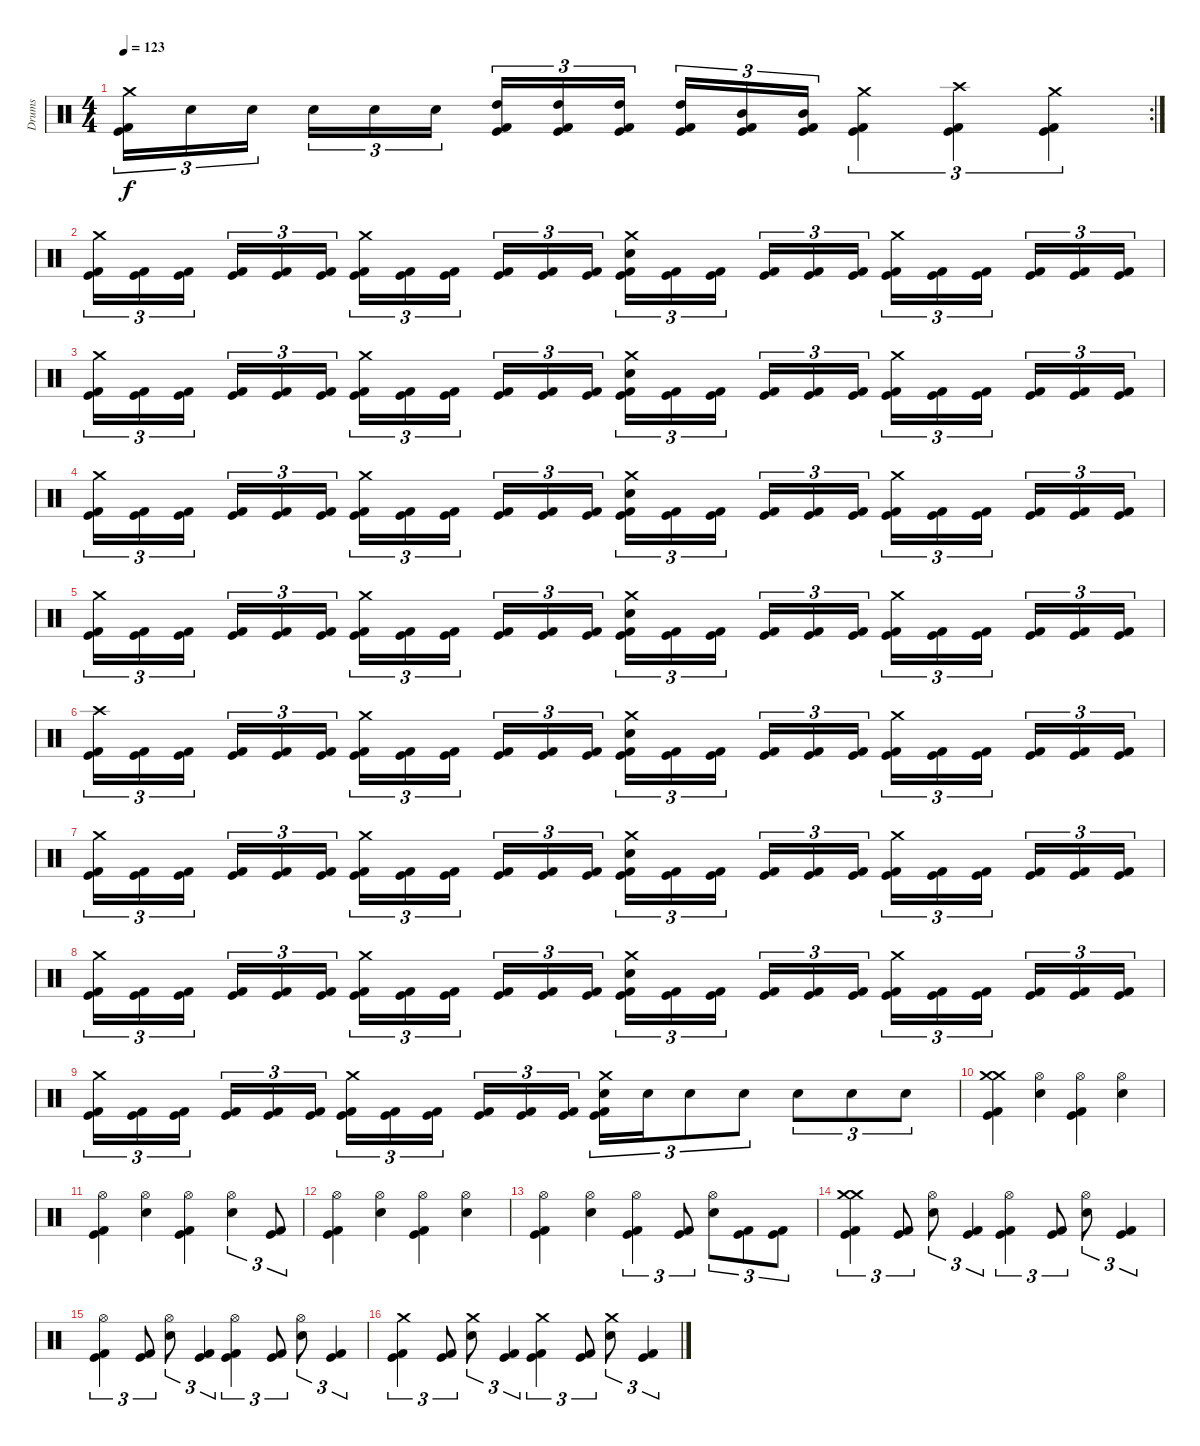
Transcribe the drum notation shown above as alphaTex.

\track ("Drums" "Drums") {instrument percussion}
\staff {score}
\articulation defaults
\rc 2
\ts (4 4)
\tempo 123
\clef neutral
\ks c
("Crash medium (hit)" "Kick (hit)" "Kick (hit) 2").16{tu (3 2) dy f} "Electric Snare (hit)".16{tu (3 2)} "Electric Snare (hit)".16{tu (3 2)} "Electric Snare (hit)".16{tu (3 2)} "Electric Snare (hit)".16{tu (3 2)} "Electric Snare (hit)".16{tu (3 2)} ("High Tom (hit)" "Kick (hit)" "Kick (hit) 2").16{tu (3 2)} ("High Tom (hit)" "Kick (hit)" "Kick (hit) 2").16{tu (3 2)} ("High Tom (hit)" "Kick (hit)" "Kick (hit) 2").16{tu (3 2)} ("High Tom (hit)" "Kick (hit)" "Kick (hit) 2").16{tu (3 2)} ("Mid Tom (hit)" "Kick (hit)" "Kick (hit) 2").16{tu (3 2)} ("Mid Tom (hit)" "Kick (hit)" "Kick (hit) 2").16{tu (3 2)} ("Crash medium (hit)" "Kick (hit)" "Kick (hit) 2").4{tu (3 2)} ("Crash high (hit)" "Kick (hit)" "Kick (hit) 2").4{tu (3 2)} ("Crash medium (hit)" "Kick (hit)" "Kick (hit) 2").4{tu (3 2)} |
("Crash medium (hit)" "Kick (hit)" "Kick (hit) 2").16{tu (3 2)} ("Kick (hit)" "Kick (hit) 2").16{tu (3 2)} ("Kick (hit)" "Kick (hit) 2").16{tu (3 2)} ("Kick (hit)" "Kick (hit) 2").16{tu (3 2)} ("Kick (hit)" "Kick (hit) 2").16{tu (3 2)} ("Kick (hit)" "Kick (hit) 2").16{tu (3 2)} ("Crash medium (hit)" "Kick (hit)" "Kick (hit) 2").16{tu (3 2)} ("Kick (hit)" "Kick (hit) 2").16{tu (3 2)} ("Kick (hit)" "Kick (hit) 2").16{tu (3 2)} ("Kick (hit)" "Kick (hit) 2").16{tu (3 2)} ("Kick (hit)" "Kick (hit) 2").16{tu (3 2)} ("Kick (hit)" "Kick (hit) 2").16{tu (3 2)} ("Crash medium (hit)" "Electric Snare (hit)" "Kick (hit)" "Kick (hit) 2").16{tu (3 2)} ("Kick (hit)" "Kick (hit) 2").16{tu (3 2)} ("Kick (hit)" "Kick (hit) 2").16{tu (3 2)} ("Kick (hit)" "Kick (hit) 2").16{tu (3 2)} ("Kick (hit)" "Kick (hit) 2").16{tu (3 2)} ("Kick (hit)" "Kick (hit) 2").16{tu (3 2)} ("Crash medium (hit)" "Kick (hit)" "Kick (hit) 2").16{tu (3 2)} ("Kick (hit)" "Kick (hit) 2").16{tu (3 2)} ("Kick (hit)" "Kick (hit) 2").16{tu (3 2)} ("Kick (hit)" "Kick (hit) 2").16{tu (3 2)} ("Kick (hit)" "Kick (hit) 2").16{tu (3 2)} ("Kick (hit)" "Kick (hit) 2").16{tu (3 2)} |
("Crash medium (hit)" "Kick (hit)" "Kick (hit) 2").16{tu (3 2)} ("Kick (hit)" "Kick (hit) 2").16{tu (3 2)} ("Kick (hit)" "Kick (hit) 2").16{tu (3 2)} ("Kick (hit)" "Kick (hit) 2").16{tu (3 2)} ("Kick (hit)" "Kick (hit) 2").16{tu (3 2)} ("Kick (hit)" "Kick (hit) 2").16{tu (3 2)} ("Crash medium (hit)" "Kick (hit)" "Kick (hit) 2").16{tu (3 2)} ("Kick (hit)" "Kick (hit) 2").16{tu (3 2)} ("Kick (hit)" "Kick (hit) 2").16{tu (3 2)} ("Kick (hit)" "Kick (hit) 2").16{tu (3 2)} ("Kick (hit)" "Kick (hit) 2").16{tu (3 2)} ("Kick (hit)" "Kick (hit) 2").16{tu (3 2)} ("Crash medium (hit)" "Electric Snare (hit)" "Kick (hit)" "Kick (hit) 2").16{tu (3 2)} ("Kick (hit)" "Kick (hit) 2").16{tu (3 2)} ("Kick (hit)" "Kick (hit) 2").16{tu (3 2)} ("Kick (hit)" "Kick (hit) 2").16{tu (3 2)} ("Kick (hit)" "Kick (hit) 2").16{tu (3 2)} ("Kick (hit)" "Kick (hit) 2").16{tu (3 2)} ("Crash medium (hit)" "Kick (hit)" "Kick (hit) 2").16{tu (3 2)} ("Kick (hit)" "Kick (hit) 2").16{tu (3 2)} ("Kick (hit)" "Kick (hit) 2").16{tu (3 2)} ("Kick (hit)" "Kick (hit) 2").16{tu (3 2)} ("Kick (hit)" "Kick (hit) 2").16{tu (3 2)} ("Kick (hit)" "Kick (hit) 2").16{tu (3 2)} |
("Crash medium (hit)" "Kick (hit)" "Kick (hit) 2").16{tu (3 2)} ("Kick (hit)" "Kick (hit) 2").16{tu (3 2)} ("Kick (hit)" "Kick (hit) 2").16{tu (3 2)} ("Kick (hit)" "Kick (hit) 2").16{tu (3 2)} ("Kick (hit)" "Kick (hit) 2").16{tu (3 2)} ("Kick (hit)" "Kick (hit) 2").16{tu (3 2)} ("Crash medium (hit)" "Kick (hit)" "Kick (hit) 2").16{tu (3 2)} ("Kick (hit)" "Kick (hit) 2").16{tu (3 2)} ("Kick (hit)" "Kick (hit) 2").16{tu (3 2)} ("Kick (hit)" "Kick (hit) 2").16{tu (3 2)} ("Kick (hit)" "Kick (hit) 2").16{tu (3 2)} ("Kick (hit)" "Kick (hit) 2").16{tu (3 2)} ("Crash medium (hit)" "Electric Snare (hit)" "Kick (hit)" "Kick (hit) 2").16{tu (3 2)} ("Kick (hit)" "Kick (hit) 2").16{tu (3 2)} ("Kick (hit)" "Kick (hit) 2").16{tu (3 2)} ("Kick (hit)" "Kick (hit) 2").16{tu (3 2)} ("Kick (hit)" "Kick (hit) 2").16{tu (3 2)} ("Kick (hit)" "Kick (hit) 2").16{tu (3 2)} ("Crash medium (hit)" "Kick (hit)" "Kick (hit) 2").16{tu (3 2)} ("Kick (hit)" "Kick (hit) 2").16{tu (3 2)} ("Kick (hit)" "Kick (hit) 2").16{tu (3 2)} ("Kick (hit)" "Kick (hit) 2").16{tu (3 2)} ("Kick (hit)" "Kick (hit) 2").16{tu (3 2)} ("Kick (hit)" "Kick (hit) 2").16{tu (3 2)} |
("Crash medium (hit)" "Kick (hit)" "Kick (hit) 2").16{tu (3 2)} ("Kick (hit)" "Kick (hit) 2").16{tu (3 2)} ("Kick (hit)" "Kick (hit) 2").16{tu (3 2)} ("Kick (hit)" "Kick (hit) 2").16{tu (3 2)} ("Kick (hit)" "Kick (hit) 2").16{tu (3 2)} ("Kick (hit)" "Kick (hit) 2").16{tu (3 2)} ("Crash medium (hit)" "Kick (hit)" "Kick (hit) 2").16{tu (3 2)} ("Kick (hit)" "Kick (hit) 2").16{tu (3 2)} ("Kick (hit)" "Kick (hit) 2").16{tu (3 2)} ("Kick (hit)" "Kick (hit) 2").16{tu (3 2)} ("Kick (hit)" "Kick (hit) 2").16{tu (3 2)} ("Kick (hit)" "Kick (hit) 2").16{tu (3 2)} ("Crash medium (hit)" "Electric Snare (hit)" "Kick (hit)" "Kick (hit) 2").16{tu (3 2)} ("Kick (hit)" "Kick (hit) 2").16{tu (3 2)} ("Kick (hit)" "Kick (hit) 2").16{tu (3 2)} ("Kick (hit)" "Kick (hit) 2").16{tu (3 2)} ("Kick (hit)" "Kick (hit) 2").16{tu (3 2)} ("Kick (hit)" "Kick (hit) 2").16{tu (3 2)} ("Crash medium (hit)" "Kick (hit)" "Kick (hit) 2").16{tu (3 2)} ("Kick (hit)" "Kick (hit) 2").16{tu (3 2)} ("Kick (hit)" "Kick (hit) 2").16{tu (3 2)} ("Kick (hit)" "Kick (hit) 2").16{tu (3 2)} ("Kick (hit)" "Kick (hit) 2").16{tu (3 2)} ("Kick (hit)" "Kick (hit) 2").16{tu (3 2)} |
("Crash high (hit)" "Kick (hit)" "Kick (hit) 2").16{tu (3 2)} ("Kick (hit)" "Kick (hit) 2").16{tu (3 2)} ("Kick (hit)" "Kick (hit) 2").16{tu (3 2)} ("Kick (hit)" "Kick (hit) 2").16{tu (3 2)} ("Kick (hit)" "Kick (hit) 2").16{tu (3 2)} ("Kick (hit)" "Kick (hit) 2").16{tu (3 2)} ("Crash medium (hit)" "Kick (hit)" "Kick (hit) 2").16{tu (3 2)} ("Kick (hit)" "Kick (hit) 2").16{tu (3 2)} ("Kick (hit)" "Kick (hit) 2").16{tu (3 2)} ("Kick (hit)" "Kick (hit) 2").16{tu (3 2)} ("Kick (hit)" "Kick (hit) 2").16{tu (3 2)} ("Kick (hit)" "Kick (hit) 2").16{tu (3 2)} ("Crash medium (hit)" "Electric Snare (hit)" "Kick (hit)" "Kick (hit) 2").16{tu (3 2)} ("Kick (hit)" "Kick (hit) 2").16{tu (3 2)} ("Kick (hit)" "Kick (hit) 2").16{tu (3 2)} ("Kick (hit)" "Kick (hit) 2").16{tu (3 2)} ("Kick (hit)" "Kick (hit) 2").16{tu (3 2)} ("Kick (hit)" "Kick (hit) 2").16{tu (3 2)} ("Crash medium (hit)" "Kick (hit)" "Kick (hit) 2").16{tu (3 2)} ("Kick (hit)" "Kick (hit) 2").16{tu (3 2)} ("Kick (hit)" "Kick (hit) 2").16{tu (3 2)} ("Kick (hit)" "Kick (hit) 2").16{tu (3 2)} ("Kick (hit)" "Kick (hit) 2").16{tu (3 2)} ("Kick (hit)" "Kick (hit) 2").16{tu (3 2)} |
("Crash medium (hit)" "Kick (hit)" "Kick (hit) 2").16{tu (3 2)} ("Kick (hit)" "Kick (hit) 2").16{tu (3 2)} ("Kick (hit)" "Kick (hit) 2").16{tu (3 2)} ("Kick (hit)" "Kick (hit) 2").16{tu (3 2)} ("Kick (hit)" "Kick (hit) 2").16{tu (3 2)} ("Kick (hit)" "Kick (hit) 2").16{tu (3 2)} ("Crash medium (hit)" "Kick (hit)" "Kick (hit) 2").16{tu (3 2)} ("Kick (hit)" "Kick (hit) 2").16{tu (3 2)} ("Kick (hit)" "Kick (hit) 2").16{tu (3 2)} ("Kick (hit)" "Kick (hit) 2").16{tu (3 2)} ("Kick (hit)" "Kick (hit) 2").16{tu (3 2)} ("Kick (hit)" "Kick (hit) 2").16{tu (3 2)} ("Crash medium (hit)" "Electric Snare (hit)" "Kick (hit)" "Kick (hit) 2").16{tu (3 2)} ("Kick (hit)" "Kick (hit) 2").16{tu (3 2)} ("Kick (hit)" "Kick (hit) 2").16{tu (3 2)} ("Kick (hit)" "Kick (hit) 2").16{tu (3 2)} ("Kick (hit)" "Kick (hit) 2").16{tu (3 2)} ("Kick (hit)" "Kick (hit) 2").16{tu (3 2)} ("Crash medium (hit)" "Kick (hit)" "Kick (hit) 2").16{tu (3 2)} ("Kick (hit)" "Kick (hit) 2").16{tu (3 2)} ("Kick (hit)" "Kick (hit) 2").16{tu (3 2)} ("Kick (hit)" "Kick (hit) 2").16{tu (3 2)} ("Kick (hit)" "Kick (hit) 2").16{tu (3 2)} ("Kick (hit)" "Kick (hit) 2").16{tu (3 2)} |
("Crash medium (hit)" "Kick (hit)" "Kick (hit) 2").16{tu (3 2)} ("Kick (hit)" "Kick (hit) 2").16{tu (3 2)} ("Kick (hit)" "Kick (hit) 2").16{tu (3 2)} ("Kick (hit)" "Kick (hit) 2").16{tu (3 2)} ("Kick (hit)" "Kick (hit) 2").16{tu (3 2)} ("Kick (hit)" "Kick (hit) 2").16{tu (3 2)} ("Crash medium (hit)" "Kick (hit)" "Kick (hit) 2").16{tu (3 2)} ("Kick (hit)" "Kick (hit) 2").16{tu (3 2)} ("Kick (hit)" "Kick (hit) 2").16{tu (3 2)} ("Kick (hit)" "Kick (hit) 2").16{tu (3 2)} ("Kick (hit)" "Kick (hit) 2").16{tu (3 2)} ("Kick (hit)" "Kick (hit) 2").16{tu (3 2)} ("Crash medium (hit)" "Electric Snare (hit)" "Kick (hit)" "Kick (hit) 2").16{tu (3 2)} ("Kick (hit)" "Kick (hit) 2").16{tu (3 2)} ("Kick (hit)" "Kick (hit) 2").16{tu (3 2)} ("Kick (hit)" "Kick (hit) 2").16{tu (3 2)} ("Kick (hit)" "Kick (hit) 2").16{tu (3 2)} ("Kick (hit)" "Kick (hit) 2").16{tu (3 2)} ("Crash medium (hit)" "Kick (hit)" "Kick (hit) 2").16{tu (3 2)} ("Kick (hit)" "Kick (hit) 2").16{tu (3 2)} ("Kick (hit)" "Kick (hit) 2").16{tu (3 2)} ("Kick (hit)" "Kick (hit) 2").16{tu (3 2)} ("Kick (hit)" "Kick (hit) 2").16{tu (3 2)} ("Kick (hit)" "Kick (hit) 2").16{tu (3 2)} |
("Crash medium (hit)" "Kick (hit)" "Kick (hit) 2").16{tu (3 2)} ("Kick (hit)" "Kick (hit) 2").16{tu (3 2)} ("Kick (hit)" "Kick (hit) 2").16{tu (3 2)} ("Kick (hit)" "Kick (hit) 2").16{tu (3 2)} ("Kick (hit)" "Kick (hit) 2").16{tu (3 2)} ("Kick (hit)" "Kick (hit) 2").16{tu (3 2)} ("Crash medium (hit)" "Kick (hit)" "Kick (hit) 2").16{tu (3 2)} ("Kick (hit)" "Kick (hit) 2").16{tu (3 2)} ("Kick (hit)" "Kick (hit) 2").16{tu (3 2)} ("Kick (hit)" "Kick (hit) 2").16{tu (3 2)} ("Kick (hit)" "Kick (hit) 2").16{tu (3 2)} ("Kick (hit)" "Kick (hit) 2").16{tu (3 2)} ("Crash medium (hit)" "Electric Snare (hit)" "Kick (hit)" "Kick (hit) 2").16{tu (3 2)} "Electric Snare (hit)".16{tu (3 2)} "Electric Snare (hit)".8{tu (3 2)} "Electric Snare (hit)".8{tu (3 2)} "Electric Snare (hit)".8{tu (3 2)} "Electric Snare (hit)".8{tu (3 2)} "Electric Snare (hit)".8{tu (3 2)} |
("Crash medium (hit)" "Crash medium (hit)" "Kick (hit)" "Kick (hit) 2").4 ("Hi-Hat (open)" "Electric Snare (hit)").4 ("Hi-Hat (open)" "Kick (hit)" "Kick (hit) 2").4 ("Hi-Hat (open)" "Electric Snare (hit)").4 |
("Hi-Hat (open)" "Kick (hit)" "Kick (hit) 2").4 ("Hi-Hat (open)" "Electric Snare (hit)").4 ("Hi-Hat (open)" "Kick (hit)" "Kick (hit) 2").4 ("Hi-Hat (open)" "Electric Snare (hit)").4{tu (3 2)} ("Kick (hit)" "Kick (hit) 2").8{tu (3 2)} |
("Hi-Hat (open)" "Kick (hit)" "Kick (hit) 2").4 ("Hi-Hat (open)" "Electric Snare (hit)").4 ("Hi-Hat (open)" "Kick (hit)" "Kick (hit) 2").4 ("Hi-Hat (open)" "Electric Snare (hit)").4 |
("Hi-Hat (open)" "Kick (hit)" "Kick (hit) 2").4 ("Hi-Hat (open)" "Electric Snare (hit)").4 ("Hi-Hat (open)" "Kick (hit)" "Kick (hit) 2").4{tu (3 2)} ("Kick (hit)" "Kick (hit) 2").8{tu (3 2)} ("Hi-Hat (open)" "Electric Snare (hit)").8{tu (3 2)} ("Kick (hit)" "Kick (hit) 2").8{tu (3 2)} ("Kick (hit)" "Kick (hit) 2").8{tu (3 2)} |
("Crash medium (hit)" "Crash medium (hit)" "Kick (hit)" "Kick (hit) 2").4{tu (3 2)} ("Kick (hit)" "Kick (hit) 2").8{tu (3 2)} ("Hi-Hat (open)" "Electric Snare (hit)").8{tu (3 2)} ("Kick (hit)" "Kick (hit) 2").4{tu (3 2)} ("Hi-Hat (open)" "Kick (hit)" "Kick (hit) 2").4{tu (3 2)} ("Kick (hit)" "Kick (hit) 2").8{tu (3 2)} ("Hi-Hat (open)" "Electric Snare (hit)").8{tu (3 2)} ("Kick (hit)" "Kick (hit) 2").4{tu (3 2)} |
("Hi-Hat (open)" "Kick (hit)" "Kick (hit) 2").4{tu (3 2)} ("Kick (hit)" "Kick (hit) 2").8{tu (3 2)} ("Hi-Hat (open)" "Electric Snare (hit)").8{tu (3 2)} ("Kick (hit)" "Kick (hit) 2").4{tu (3 2)} ("Hi-Hat (open)" "Kick (hit)" "Kick (hit) 2").4{tu (3 2)} ("Kick (hit)" "Kick (hit) 2").8{tu (3 2)} ("Hi-Hat (open)" "Electric Snare (hit)").8{tu (3 2)} ("Kick (hit)" "Kick (hit) 2").4{tu (3 2)} |
("Crash medium (hit)" "Kick (hit)" "Kick (hit) 2").4{tu (3 2)} ("Kick (hit)" "Kick (hit) 2").8{tu (3 2)} ("Crash medium (hit)" "Electric Snare (hit)").8{tu (3 2)} ("Kick (hit)" "Kick (hit) 2").4{tu (3 2)} ("Crash medium (hit)" "Kick (hit)" "Kick (hit) 2").4{tu (3 2)} ("Kick (hit)" "Kick (hit) 2").8{tu (3 2)} ("Crash medium (hit)" "Electric Snare (hit)").8{tu (3 2)} ("Kick (hit)" "Kick (hit) 2").4{tu (3 2)}
